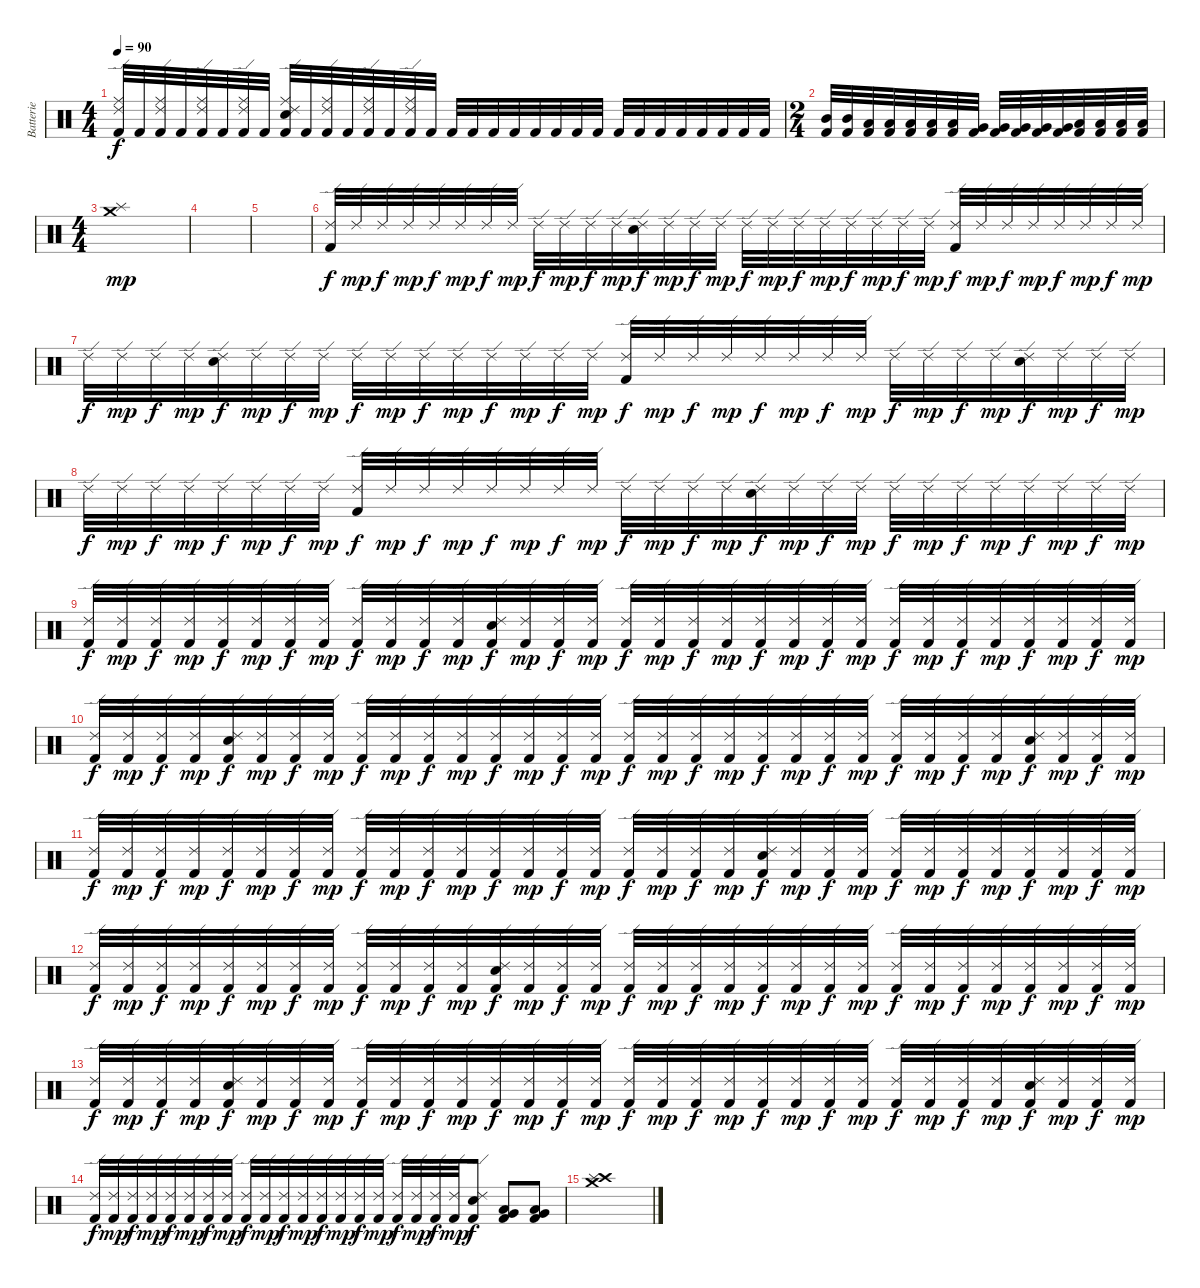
\track ("Batterie" "Batterie") {instrument percussion}
\staff {score}
\articulation defaults
\ts (4 4)
\tempo 90
\clef neutral
\ks c
("Ride (edge) 2" "Ride (middle)" "Kick (hit) 2").32{dy f} "Kick (hit) 2".32 ("Ride (edge) 2" "Ride (middle)" "Kick (hit) 2").32 "Kick (hit) 2".32 ("Ride (edge) 2" "Ride (middle)" "Kick (hit) 2").32 "Kick (hit) 2".32 ("Ride (edge) 2" "Ride (middle)" "Kick (hit) 2").32 "Kick (hit) 2".32 ("Ride (edge) 2" "Ride (middle)" "Electric Snare (hit)" "Kick (hit) 2").32 "Kick (hit) 2".32 ("Ride (edge) 2" "Ride (middle)" "Kick (hit) 2").32 "Kick (hit) 2".32 ("Ride (edge) 2" "Ride (middle)" "Kick (hit) 2").32 "Kick (hit) 2".32 ("Ride (edge) 2" "Ride (middle)" "Kick (hit) 2").32 "Kick (hit) 2".32 "Kick (hit) 2".32 "Kick (hit) 2".32 "Kick (hit) 2".32 "Kick (hit) 2".32 "Kick (hit) 2".32 "Kick (hit) 2".32 "Kick (hit) 2".32 "Kick (hit) 2".32 "Kick (hit) 2".32 "Kick (hit) 2".32 "Kick (hit) 2".32 "Kick (hit) 2".32 "Kick (hit) 2".32 "Kick (hit) 2".32 "Kick (hit) 2".32 "Kick (hit) 2".32 |
\ts (2 4)
("Mid Tom (hit)" "Kick (hit) 2").32 ("Mid Tom (hit)" "Kick (hit) 2").32 ("Low Tom (hit)" "Kick (hit) 2").32 ("Low Tom (hit)" "Kick (hit) 2").32 ("Low Tom (hit)" "Kick (hit) 2").32 ("Low Tom (hit)" "Kick (hit) 2").32 ("Low Tom (hit)" "Kick (hit) 2").32 ("Very Low Tom (hit)" "Kick (hit) 2").32 ("Very Low Tom (hit)" "Kick (hit) 2").32 ("Very Low Tom (hit)" "Kick (hit) 2").32 ("Very Low Tom (hit)" "Kick (hit) 2").32 ("Very Low Tom (hit)" "Kick (hit) 2").32 ("Low Floor Tom (hit)" "Kick (hit) 2").32 ("Low Floor Tom (hit)" "Kick (hit) 2").32 ("Low Floor Tom (hit)" "Kick (hit) 2").32 ("Low Floor Tom (hit)" "Kick (hit) 2").32 |
\ts (4 4)
("Crash medium (hit)" "Splash (hit)").1{dy mp} |
|
|
("Ride (edge) 2" "Kick (hit) 2").32{dy f} "Ride (edge) 2".32{dy mp} "Ride (edge) 2".32{dy f} "Ride (edge) 2".32{dy mp} "Ride (edge) 2".32{dy f} "Ride (edge) 2".32{dy mp} "Ride (edge) 2".32{dy f} "Ride (edge) 2".32{dy mp} "Ride (edge) 2".32{dy f} "Ride (edge) 2".32{dy mp} "Ride (edge) 2".32{dy f} "Ride (edge) 2".32{dy mp} ("Ride (edge) 2" "Electric Snare (hit)").32{dy f} "Ride (edge) 2".32{dy mp} "Ride (edge) 2".32{dy f} "Ride (edge) 2".32{dy mp} "Ride (edge) 2".32{dy f} "Ride (edge) 2".32{dy mp} "Ride (edge) 2".32{dy f} "Ride (edge) 2".32{dy mp} "Ride (edge) 2".32{dy f} "Ride (edge) 2".32{dy mp} "Ride (edge) 2".32{dy f} "Ride (edge) 2".32{dy mp} ("Ride (edge) 2" "Kick (hit) 2").32{dy f} "Ride (edge) 2".32{dy mp} "Ride (edge) 2".32{dy f} "Ride (edge) 2".32{dy mp} "Ride (edge) 2".32{dy f} "Ride (edge) 2".32{dy mp} "Ride (edge) 2".32{dy f} "Ride (edge) 2".32{dy mp} |
"Ride (edge) 2".32{dy f} "Ride (edge) 2".32{dy mp} "Ride (edge) 2".32{dy f} "Ride (edge) 2".32{dy mp} ("Ride (edge) 2" "Electric Snare (hit)").32{dy f} "Ride (edge) 2".32{dy mp} "Ride (edge) 2".32{dy f} "Ride (edge) 2".32{dy mp} "Ride (edge) 2".32{dy f} "Ride (edge) 2".32{dy mp} "Ride (edge) 2".32{dy f} "Ride (edge) 2".32{dy mp} "Ride (edge) 2".32{dy f} "Ride (edge) 2".32{dy mp} "Ride (edge) 2".32{dy f} "Ride (edge) 2".32{dy mp} ("Ride (edge) 2" "Kick (hit) 2").32{dy f} "Ride (edge) 2".32{dy mp} "Ride (edge) 2".32{dy f} "Ride (edge) 2".32{dy mp} "Ride (edge) 2".32{dy f} "Ride (edge) 2".32{dy mp} "Ride (edge) 2".32{dy f} "Ride (edge) 2".32{dy mp} "Ride (edge) 2".32{dy f} "Ride (edge) 2".32{dy mp} "Ride (edge) 2".32{dy f} "Ride (edge) 2".32{dy mp} ("Ride (edge) 2" "Electric Snare (hit)").32{dy f} "Ride (edge) 2".32{dy mp} "Ride (edge) 2".32{dy f} "Ride (edge) 2".32{dy mp} |
"Ride (edge) 2".32{dy f} "Ride (edge) 2".32{dy mp} "Ride (edge) 2".32{dy f} "Ride (edge) 2".32{dy mp} "Ride (edge) 2".32{dy f} "Ride (edge) 2".32{dy mp} "Ride (edge) 2".32{dy f} "Ride (edge) 2".32{dy mp} ("Ride (edge) 2" "Kick (hit) 2").32{dy f} "Ride (edge) 2".32{dy mp} "Ride (edge) 2".32{dy f} "Ride (edge) 2".32{dy mp} "Ride (edge) 2".32{dy f} "Ride (edge) 2".32{dy mp} "Ride (edge) 2".32{dy f} "Ride (edge) 2".32{dy mp} "Ride (edge) 2".32{dy f} "Ride (edge) 2".32{dy mp} "Ride (edge) 2".32{dy f} "Ride (edge) 2".32{dy mp} ("Ride (edge) 2" "Electric Snare (hit)").32{dy f} "Ride (edge) 2".32{dy mp} "Ride (edge) 2".32{dy f} "Ride (edge) 2".32{dy mp} "Ride (edge) 2".32{dy f} "Ride (edge) 2".32{dy mp} "Ride (edge) 2".32{dy f} "Ride (edge) 2".32{dy mp} "Ride (edge) 2".32{dy f} "Ride (edge) 2".32{dy mp} "Ride (edge) 2".32{dy f} "Ride (edge) 2".32{dy mp} |
("Ride (edge) 2" "Kick (hit) 2").32{dy f} ("Ride (edge) 2" "Kick (hit) 2").32{dy mp} ("Ride (edge) 2" "Kick (hit) 2").32{dy f} ("Ride (edge) 2" "Kick (hit) 2").32{dy mp} ("Ride (edge) 2" "Kick (hit) 2").32{dy f} ("Ride (edge) 2" "Kick (hit) 2").32{dy mp} ("Ride (edge) 2" "Kick (hit) 2").32{dy f} ("Ride (edge) 2" "Kick (hit) 2").32{dy mp} ("Ride (edge) 2" "Kick (hit) 2").32{dy f} ("Ride (edge) 2" "Kick (hit) 2").32{dy mp} ("Ride (edge) 2" "Kick (hit) 2").32{dy f} ("Ride (edge) 2" "Kick (hit) 2").32{dy mp} ("Ride (edge) 2" "Electric Snare (hit)" "Kick (hit) 2").32{dy f} ("Ride (edge) 2" "Kick (hit) 2").32{dy mp} ("Ride (edge) 2" "Kick (hit) 2").32{dy f} ("Ride (edge) 2" "Kick (hit) 2").32{dy mp} ("Ride (edge) 2" "Kick (hit) 2").32{dy f} ("Ride (edge) 2" "Kick (hit) 2").32{dy mp} ("Ride (edge) 2" "Kick (hit) 2").32{dy f} ("Ride (edge) 2" "Kick (hit) 2").32{dy mp} ("Ride (edge) 2" "Kick (hit) 2").32{dy f} ("Ride (edge) 2" "Kick (hit) 2").32{dy mp} ("Ride (edge) 2" "Kick (hit) 2").32{dy f} ("Ride (edge) 2" "Kick (hit) 2").32{dy mp} ("Ride (edge) 2" "Kick (hit) 2").32{dy f} ("Ride (edge) 2" "Kick (hit) 2").32{dy mp} ("Ride (edge) 2" "Kick (hit) 2").32{dy f} ("Ride (edge) 2" "Kick (hit) 2").32{dy mp} ("Ride (edge) 2" "Kick (hit) 2").32{dy f} ("Ride (edge) 2" "Kick (hit) 2").32{dy mp} ("Ride (edge) 2" "Kick (hit) 2").32{dy f} ("Ride (edge) 2" "Kick (hit) 2").32{dy mp} |
("Ride (edge) 2" "Kick (hit) 2").32{dy f} ("Ride (edge) 2" "Kick (hit) 2").32{dy mp} ("Ride (edge) 2" "Kick (hit) 2").32{dy f} ("Ride (edge) 2" "Kick (hit) 2").32{dy mp} ("Ride (edge) 2" "Electric Snare (hit)" "Kick (hit) 2").32{dy f} ("Ride (edge) 2" "Kick (hit) 2").32{dy mp} ("Ride (edge) 2" "Kick (hit) 2").32{dy f} ("Ride (edge) 2" "Kick (hit) 2").32{dy mp} ("Ride (edge) 2" "Kick (hit) 2").32{dy f} ("Ride (edge) 2" "Kick (hit) 2").32{dy mp} ("Ride (edge) 2" "Kick (hit) 2").32{dy f} ("Ride (edge) 2" "Kick (hit) 2").32{dy mp} ("Ride (edge) 2" "Kick (hit) 2").32{dy f} ("Ride (edge) 2" "Kick (hit) 2").32{dy mp} ("Ride (edge) 2" "Kick (hit) 2").32{dy f} ("Ride (edge) 2" "Kick (hit) 2").32{dy mp} ("Ride (edge) 2" "Kick (hit) 2").32{dy f} ("Ride (edge) 2" "Kick (hit) 2").32{dy mp} ("Ride (edge) 2" "Kick (hit) 2").32{dy f} ("Ride (edge) 2" "Kick (hit) 2").32{dy mp} ("Ride (edge) 2" "Kick (hit) 2").32{dy f} ("Ride (edge) 2" "Kick (hit) 2").32{dy mp} ("Ride (edge) 2" "Kick (hit) 2").32{dy f} ("Ride (edge) 2" "Kick (hit) 2").32{dy mp} ("Ride (edge) 2" "Kick (hit) 2").32{dy f} ("Ride (edge) 2" "Kick (hit) 2").32{dy mp} ("Ride (edge) 2" "Kick (hit) 2").32{dy f} ("Ride (edge) 2" "Kick (hit) 2").32{dy mp} ("Ride (edge) 2" "Electric Snare (hit)" "Kick (hit) 2").32{dy f} ("Ride (edge) 2" "Kick (hit) 2").32{dy mp} ("Ride (edge) 2" "Kick (hit) 2").32{dy f} ("Ride (edge) 2" "Kick (hit) 2").32{dy mp} |
("Ride (edge) 2" "Kick (hit) 2").32{dy f} ("Ride (edge) 2" "Kick (hit) 2").32{dy mp} ("Ride (edge) 2" "Kick (hit) 2").32{dy f} ("Ride (edge) 2" "Kick (hit) 2").32{dy mp} ("Ride (edge) 2" "Kick (hit) 2").32{dy f} ("Ride (edge) 2" "Kick (hit) 2").32{dy mp} ("Ride (edge) 2" "Kick (hit) 2").32{dy f} ("Ride (edge) 2" "Kick (hit) 2").32{dy mp} ("Ride (edge) 2" "Kick (hit) 2").32{dy f} ("Ride (edge) 2" "Kick (hit) 2").32{dy mp} ("Ride (edge) 2" "Kick (hit) 2").32{dy f} ("Ride (edge) 2" "Kick (hit) 2").32{dy mp} ("Ride (edge) 2" "Kick (hit) 2").32{dy f} ("Ride (edge) 2" "Kick (hit) 2").32{dy mp} ("Ride (edge) 2" "Kick (hit) 2").32{dy f} ("Ride (edge) 2" "Kick (hit) 2").32{dy mp} ("Ride (edge) 2" "Kick (hit) 2").32{dy f} ("Ride (edge) 2" "Kick (hit) 2").32{dy mp} ("Ride (edge) 2" "Kick (hit) 2").32{dy f} ("Ride (edge) 2" "Kick (hit) 2").32{dy mp} ("Ride (edge) 2" "Electric Snare (hit)" "Kick (hit) 2").32{dy f} ("Ride (edge) 2" "Kick (hit) 2").32{dy mp} ("Ride (edge) 2" "Kick (hit) 2").32{dy f} ("Ride (edge) 2" "Kick (hit) 2").32{dy mp} ("Ride (edge) 2" "Kick (hit) 2").32{dy f} ("Ride (edge) 2" "Kick (hit) 2").32{dy mp} ("Ride (edge) 2" "Kick (hit) 2").32{dy f} ("Ride (edge) 2" "Kick (hit) 2").32{dy mp} ("Ride (edge) 2" "Kick (hit) 2").32{dy f} ("Ride (edge) 2" "Kick (hit) 2").32{dy mp} ("Ride (edge) 2" "Kick (hit) 2").32{dy f} ("Ride (edge) 2" "Kick (hit) 2").32{dy mp} |
("Ride (edge) 2" "Kick (hit) 2").32{dy f} ("Ride (edge) 2" "Kick (hit) 2").32{dy mp} ("Ride (edge) 2" "Kick (hit) 2").32{dy f} ("Ride (edge) 2" "Kick (hit) 2").32{dy mp} ("Ride (edge) 2" "Kick (hit) 2").32{dy f} ("Ride (edge) 2" "Kick (hit) 2").32{dy mp} ("Ride (edge) 2" "Kick (hit) 2").32{dy f} ("Ride (edge) 2" "Kick (hit) 2").32{dy mp} ("Ride (edge) 2" "Kick (hit) 2").32{dy f} ("Ride (edge) 2" "Kick (hit) 2").32{dy mp} ("Ride (edge) 2" "Kick (hit) 2").32{dy f} ("Ride (edge) 2" "Kick (hit) 2").32{dy mp} ("Ride (edge) 2" "Electric Snare (hit)" "Kick (hit) 2").32{dy f} ("Ride (edge) 2" "Kick (hit) 2").32{dy mp} ("Ride (edge) 2" "Kick (hit) 2").32{dy f} ("Ride (edge) 2" "Kick (hit) 2").32{dy mp} ("Ride (edge) 2" "Kick (hit) 2").32{dy f} ("Ride (edge) 2" "Kick (hit) 2").32{dy mp} ("Ride (edge) 2" "Kick (hit) 2").32{dy f} ("Ride (edge) 2" "Kick (hit) 2").32{dy mp} ("Ride (edge) 2" "Kick (hit) 2").32{dy f} ("Ride (edge) 2" "Kick (hit) 2").32{dy mp} ("Ride (edge) 2" "Kick (hit) 2").32{dy f} ("Ride (edge) 2" "Kick (hit) 2").32{dy mp} ("Ride (edge) 2" "Kick (hit) 2").32{dy f} ("Ride (edge) 2" "Kick (hit) 2").32{dy mp} ("Ride (edge) 2" "Kick (hit) 2").32{dy f} ("Ride (edge) 2" "Kick (hit) 2").32{dy mp} ("Ride (edge) 2" "Kick (hit) 2").32{dy f} ("Ride (edge) 2" "Kick (hit) 2").32{dy mp} ("Ride (edge) 2" "Kick (hit) 2").32{dy f} ("Ride (edge) 2" "Kick (hit) 2").32{dy mp} |
("Ride (edge) 2" "Kick (hit) 2").32{dy f} ("Ride (edge) 2" "Kick (hit) 2").32{dy mp} ("Ride (edge) 2" "Kick (hit) 2").32{dy f} ("Ride (edge) 2" "Kick (hit) 2").32{dy mp} ("Ride (edge) 2" "Electric Snare (hit)" "Kick (hit) 2").32{dy f} ("Ride (edge) 2" "Kick (hit) 2").32{dy mp} ("Ride (edge) 2" "Kick (hit) 2").32{dy f} ("Ride (edge) 2" "Kick (hit) 2").32{dy mp} ("Ride (edge) 2" "Kick (hit) 2").32{dy f} ("Ride (edge) 2" "Kick (hit) 2").32{dy mp} ("Ride (edge) 2" "Kick (hit) 2").32{dy f} ("Ride (edge) 2" "Kick (hit) 2").32{dy mp} ("Ride (edge) 2" "Kick (hit) 2").32{dy f} ("Ride (edge) 2" "Kick (hit) 2").32{dy mp} ("Ride (edge) 2" "Kick (hit) 2").32{dy f} ("Ride (edge) 2" "Kick (hit) 2").32{dy mp} ("Ride (edge) 2" "Kick (hit) 2").32{dy f} ("Ride (edge) 2" "Kick (hit) 2").32{dy mp} ("Ride (edge) 2" "Kick (hit) 2").32{dy f} ("Ride (edge) 2" "Kick (hit) 2").32{dy mp} ("Ride (edge) 2" "Kick (hit) 2").32{dy f} ("Ride (edge) 2" "Kick (hit) 2").32{dy mp} ("Ride (edge) 2" "Kick (hit) 2").32{dy f} ("Ride (edge) 2" "Kick (hit) 2").32{dy mp} ("Ride (edge) 2" "Kick (hit) 2").32{dy f} ("Ride (edge) 2" "Kick (hit) 2").32{dy mp} ("Ride (edge) 2" "Kick (hit) 2").32{dy f} ("Ride (edge) 2" "Kick (hit) 2").32{dy mp} ("Ride (edge) 2" "Electric Snare (hit)" "Kick (hit) 2").32{dy f} ("Ride (edge) 2" "Kick (hit) 2").32{dy mp} ("Ride (edge) 2" "Kick (hit) 2").32{dy f} ("Ride (edge) 2" "Kick (hit) 2").32{dy mp} |
("Ride (edge) 2" "Kick (hit) 2").32{dy f} ("Ride (edge) 2" "Kick (hit) 2").32{dy mp} ("Ride (edge) 2" "Kick (hit) 2").32{dy f} ("Ride (edge) 2" "Kick (hit) 2").32{dy mp} ("Ride (edge) 2" "Kick (hit) 2").32{dy f} ("Ride (edge) 2" "Kick (hit) 2").32{dy mp} ("Ride (edge) 2" "Kick (hit) 2").32{dy f} ("Ride (edge) 2" "Kick (hit) 2").32{dy mp} ("Ride (edge) 2" "Kick (hit) 2").32{dy f} ("Ride (edge) 2" "Kick (hit) 2").32{dy mp} ("Ride (edge) 2" "Kick (hit) 2").32{dy f} ("Ride (edge) 2" "Kick (hit) 2").32{dy mp} ("Ride (edge) 2" "Kick (hit) 2").32{dy f} ("Ride (edge) 2" "Kick (hit) 2").32{dy mp} ("Ride (edge) 2" "Kick (hit) 2").32{dy f} ("Ride (edge) 2" "Kick (hit) 2").32{dy mp} ("Ride (edge) 2" "Kick (hit) 2").32{dy f} ("Ride (edge) 2" "Kick (hit) 2").32{dy mp} ("Ride (edge) 2" "Kick (hit) 2").32{dy f} ("Ride (edge) 2" "Kick (hit) 2").32{dy mp} ("Ride (edge) 2" "Electric Snare (hit)" "Kick (hit) 2").8{dy f} ("Low Tom (hit)" "Very Low Tom (hit)" "Kick (hit) 2").8 ("Low Tom (hit)" "Very Low Tom (hit)" "Kick (hit) 2").8 |
("Crash medium (hit)" "Crash high (hit)" "Splash (hit)").1
